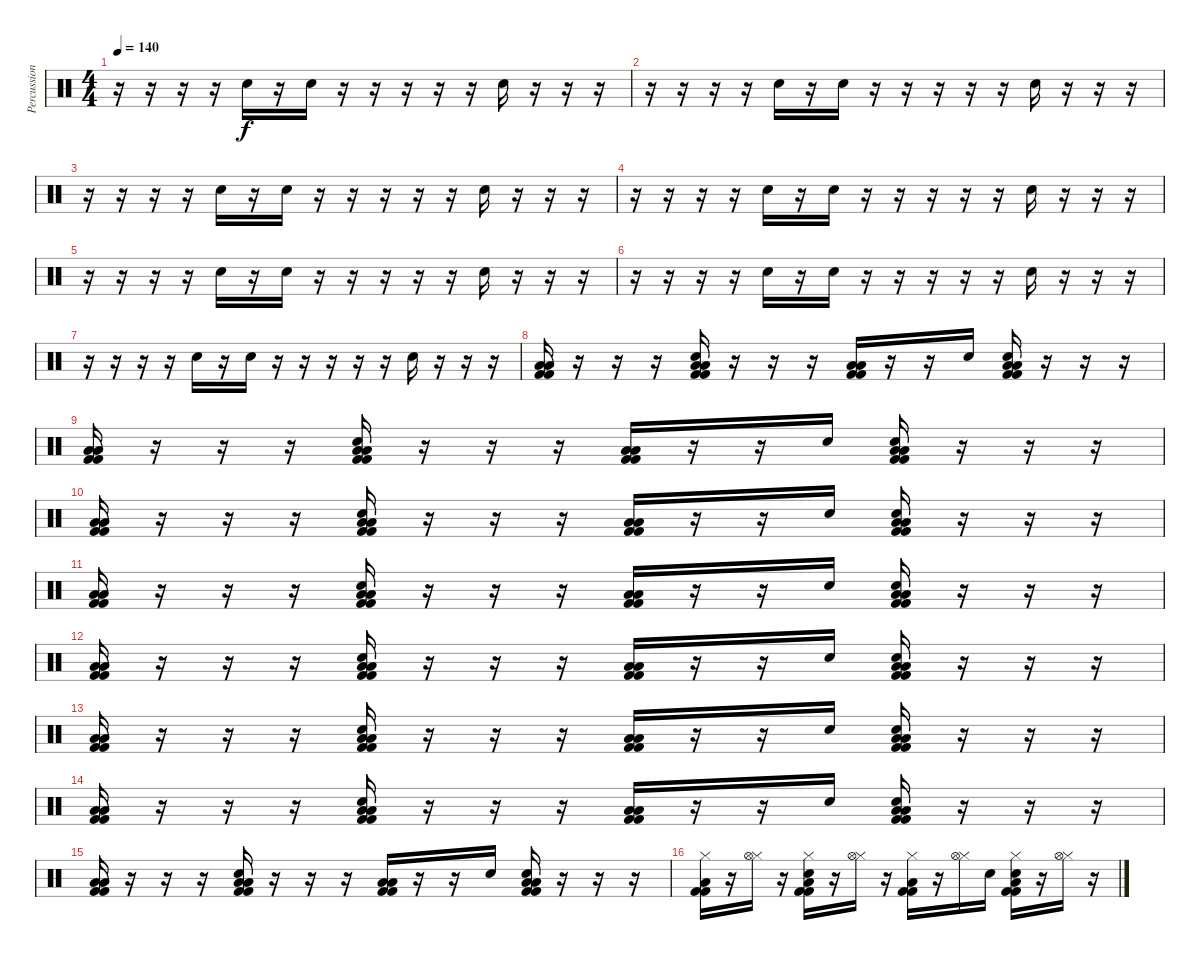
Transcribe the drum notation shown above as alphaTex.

\track ("Percussion" "Percussion") {instrument percussion}
\staff {score}
\articulation defaults
\ts (4 4)
\tempo 140
\clef neutral
\ks c
r.16{dy f} r.16 r.16 r.16 "Hand Clap (hit)".16 r.16 "Hand Clap (hit)".16 r.16 r.16 r.16 r.16 r.16 "Hand Clap (hit)".16 r.16 r.16 r.16 |
r.16 r.16 r.16 r.16 "Hand Clap (hit)".16 r.16 "Hand Clap (hit)".16 r.16 r.16 r.16 r.16 r.16 "Hand Clap (hit)".16 r.16 r.16 r.16 |
r.16 r.16 r.16 r.16 "Hand Clap (hit)".16 r.16 "Hand Clap (hit)".16 r.16 r.16 r.16 r.16 r.16 "Hand Clap (hit)".16 r.16 r.16 r.16 |
r.16 r.16 r.16 r.16 "Hand Clap (hit)".16 r.16 "Hand Clap (hit)".16 r.16 r.16 r.16 r.16 r.16 "Hand Clap (hit)".16 r.16 r.16 r.16 |
r.16 r.16 r.16 r.16 "Hand Clap (hit)".16 r.16 "Hand Clap (hit)".16 r.16 r.16 r.16 r.16 r.16 "Hand Clap (hit)".16 r.16 r.16 r.16 |
r.16 r.16 r.16 r.16 "Hand Clap (hit)".16 r.16 "Hand Clap (hit)".16 r.16 r.16 r.16 r.16 r.16 "Hand Clap (hit)".16 r.16 r.16 r.16 |
r.16 r.16 r.16 r.16 "Hand Clap (hit)".16 r.16 "Hand Clap (hit)".16 r.16 r.16 r.16 r.16 r.16 "Hand Clap (hit)".16 r.16 r.16 r.16 |
("Low Tom (hit)" "Low Tom (hit)" "Kick (hit) 2" "Kick (hit) 2").16 r.16 r.16 r.16 ("Low Tom (hit)" "Low Tom (hit)" "Kick (hit) 2" "Kick (hit) 2" "Hand Clap (hit)").16 r.16 r.16 r.16 ("Low Tom (hit)" "Low Tom (hit)" "Kick (hit) 2" "Kick (hit) 2").16 r.16 r.16 "Hand Clap (hit)".16 ("Low Tom (hit)" "Low Tom (hit)" "Kick (hit) 2" "Kick (hit) 2" "Hand Clap (hit)").16 r.16 r.16 r.16 |
("Low Tom (hit)" "Low Tom (hit)" "Kick (hit) 2" "Kick (hit) 2").16 r.16 r.16 r.16 ("Low Tom (hit)" "Low Tom (hit)" "Kick (hit) 2" "Kick (hit) 2" "Hand Clap (hit)").16 r.16 r.16 r.16 ("Low Tom (hit)" "Low Tom (hit)" "Kick (hit) 2" "Kick (hit) 2").16 r.16 r.16 "Hand Clap (hit)".16 ("Low Tom (hit)" "Low Tom (hit)" "Kick (hit) 2" "Kick (hit) 2" "Hand Clap (hit)").16 r.16 r.16 r.16 |
("Low Tom (hit)" "Low Tom (hit)" "Kick (hit) 2" "Kick (hit) 2").16 r.16 r.16 r.16 ("Low Tom (hit)" "Low Tom (hit)" "Kick (hit) 2" "Kick (hit) 2" "Hand Clap (hit)").16 r.16 r.16 r.16 ("Low Tom (hit)" "Low Tom (hit)" "Kick (hit) 2" "Kick (hit) 2").16 r.16 r.16 "Hand Clap (hit)".16 ("Low Tom (hit)" "Low Tom (hit)" "Kick (hit) 2" "Kick (hit) 2" "Hand Clap (hit)").16 r.16 r.16 r.16 |
("Low Tom (hit)" "Low Tom (hit)" "Kick (hit) 2" "Kick (hit) 2").16 r.16 r.16 r.16 ("Low Tom (hit)" "Low Tom (hit)" "Kick (hit) 2" "Kick (hit) 2" "Hand Clap (hit)").16 r.16 r.16 r.16 ("Low Tom (hit)" "Low Tom (hit)" "Kick (hit) 2" "Kick (hit) 2").16 r.16 r.16 "Hand Clap (hit)".16 ("Low Tom (hit)" "Low Tom (hit)" "Kick (hit) 2" "Kick (hit) 2" "Hand Clap (hit)").16 r.16 r.16 r.16 |
("Low Tom (hit)" "Low Tom (hit)" "Kick (hit) 2" "Kick (hit) 2").16 r.16 r.16 r.16 ("Low Tom (hit)" "Low Tom (hit)" "Kick (hit) 2" "Kick (hit) 2" "Hand Clap (hit)").16 r.16 r.16 r.16 ("Low Tom (hit)" "Low Tom (hit)" "Kick (hit) 2" "Kick (hit) 2").16 r.16 r.16 "Hand Clap (hit)".16 ("Low Tom (hit)" "Low Tom (hit)" "Kick (hit) 2" "Kick (hit) 2" "Hand Clap (hit)").16 r.16 r.16 r.16 |
("Low Tom (hit)" "Low Tom (hit)" "Kick (hit) 2" "Kick (hit) 2").16 r.16 r.16 r.16 ("Low Tom (hit)" "Low Tom (hit)" "Kick (hit) 2" "Kick (hit) 2" "Hand Clap (hit)").16 r.16 r.16 r.16 ("Low Tom (hit)" "Low Tom (hit)" "Kick (hit) 2" "Kick (hit) 2").16 r.16 r.16 "Hand Clap (hit)".16 ("Low Tom (hit)" "Low Tom (hit)" "Kick (hit) 2" "Kick (hit) 2" "Hand Clap (hit)").16 r.16 r.16 r.16 |
("Low Tom (hit)" "Low Tom (hit)" "Kick (hit) 2" "Kick (hit) 2").16 r.16 r.16 r.16 ("Low Tom (hit)" "Low Tom (hit)" "Kick (hit) 2" "Kick (hit) 2" "Hand Clap (hit)").16 r.16 r.16 r.16 ("Low Tom (hit)" "Low Tom (hit)" "Kick (hit) 2" "Kick (hit) 2").16 r.16 r.16 "Hand Clap (hit)".16 ("Low Tom (hit)" "Low Tom (hit)" "Kick (hit) 2" "Kick (hit) 2" "Hand Clap (hit)").16 r.16 r.16 r.16 |
("Low Tom (hit)" "Low Tom (hit)" "Kick (hit) 2" "Kick (hit) 2").16 r.16 r.16 r.16 ("Low Tom (hit)" "Low Tom (hit)" "Kick (hit) 2" "Kick (hit) 2" "Hand Clap (hit)").16 r.16 r.16 r.16 ("Low Tom (hit)" "Low Tom (hit)" "Kick (hit) 2" "Kick (hit) 2").16 r.16 r.16 "Hand Clap (hit)".16 ("Low Tom (hit)" "Low Tom (hit)" "Kick (hit) 2" "Kick (hit) 2" "Hand Clap (hit)").16 r.16 r.16 r.16 |
("Hi-Hat (closed)" "Low Tom (hit)" "Kick (hit) 2" "Kick (hit) 2").16 r.16 ("Hi-Hat (closed)" "Hi-Hat (open)").16 r.16 ("Hi-Hat (closed)" "Low Tom (hit)" "Kick (hit) 2" "Kick (hit) 2" "Hand Clap (hit)").16 r.16 ("Hi-Hat (closed)" "Hi-Hat (open)").16 r.16 ("Hi-Hat (closed)" "Low Tom (hit)" "Kick (hit) 2" "Kick (hit) 2").16 r.16 ("Hi-Hat (closed)" "Hi-Hat (open)").16 "Hand Clap (hit)".16 ("Hi-Hat (closed)" "Low Tom (hit)" "Kick (hit) 2" "Kick (hit) 2" "Hand Clap (hit)").16 r.16 ("Hi-Hat (closed)" "Hi-Hat (open)").16 r.16
